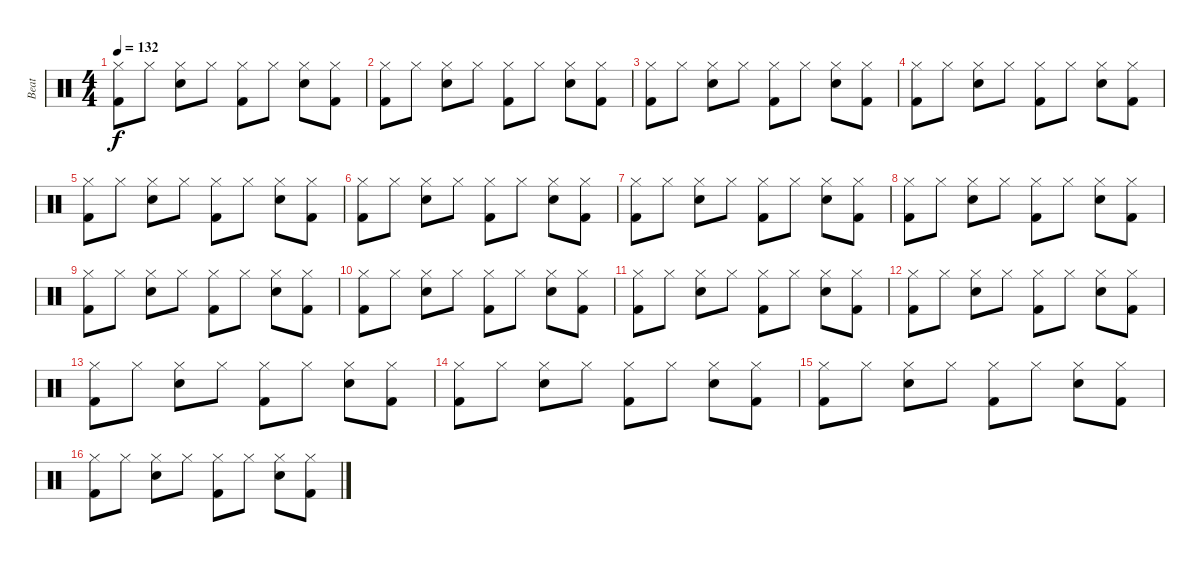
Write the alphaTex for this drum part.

\track ("Beat" "Beat") {instrument percussion}
\staff {score}
\articulation defaults
\ts (4 4)
\tempo 132
\clef neutral
\ks c
("Kick (hit) 2" "Hi-Hat (closed)").8{dy f} "Hi-Hat (closed)".8 ("Electric Snare (hit)" "Hi-Hat (closed)").8 "Hi-Hat (closed)".8 ("Kick (hit) 2" "Hi-Hat (closed)").8 "Hi-Hat (closed)".8 ("Electric Snare (hit)" "Hi-Hat (closed)").8 ("Kick (hit) 2" "Hi-Hat (closed)").8 |
("Kick (hit) 2" "Hi-Hat (closed)").8 "Hi-Hat (closed)".8 ("Electric Snare (hit)" "Hi-Hat (closed)").8 "Hi-Hat (closed)".8 ("Kick (hit) 2" "Hi-Hat (closed)").8 "Hi-Hat (closed)".8 ("Electric Snare (hit)" "Hi-Hat (closed)").8 ("Kick (hit) 2" "Hi-Hat (closed)").8 |
("Kick (hit) 2" "Hi-Hat (closed)").8 "Hi-Hat (closed)".8 ("Electric Snare (hit)" "Hi-Hat (closed)").8 "Hi-Hat (closed)".8 ("Kick (hit) 2" "Hi-Hat (closed)").8 "Hi-Hat (closed)".8 ("Electric Snare (hit)" "Hi-Hat (closed)").8 ("Kick (hit) 2" "Hi-Hat (closed)").8 |
("Kick (hit) 2" "Hi-Hat (closed)").8 "Hi-Hat (closed)".8 ("Electric Snare (hit)" "Hi-Hat (closed)").8 "Hi-Hat (closed)".8 ("Kick (hit) 2" "Hi-Hat (closed)").8 "Hi-Hat (closed)".8 ("Electric Snare (hit)" "Hi-Hat (closed)").8 ("Kick (hit) 2" "Hi-Hat (closed)").8 |
("Kick (hit) 2" "Hi-Hat (closed)").8 "Hi-Hat (closed)".8 ("Electric Snare (hit)" "Hi-Hat (closed)").8 "Hi-Hat (closed)".8 ("Kick (hit) 2" "Hi-Hat (closed)").8 "Hi-Hat (closed)".8 ("Electric Snare (hit)" "Hi-Hat (closed)").8 ("Kick (hit) 2" "Hi-Hat (closed)").8 |
("Kick (hit) 2" "Hi-Hat (closed)").8 "Hi-Hat (closed)".8 ("Electric Snare (hit)" "Hi-Hat (closed)").8 "Hi-Hat (closed)".8 ("Kick (hit) 2" "Hi-Hat (closed)").8 "Hi-Hat (closed)".8 ("Electric Snare (hit)" "Hi-Hat (closed)").8 ("Kick (hit) 2" "Hi-Hat (closed)").8 |
("Kick (hit) 2" "Hi-Hat (closed)").8 "Hi-Hat (closed)".8 ("Electric Snare (hit)" "Hi-Hat (closed)").8 "Hi-Hat (closed)".8 ("Kick (hit) 2" "Hi-Hat (closed)").8 "Hi-Hat (closed)".8 ("Electric Snare (hit)" "Hi-Hat (closed)").8 ("Kick (hit) 2" "Hi-Hat (closed)").8 |
("Kick (hit) 2" "Hi-Hat (closed)").8 "Hi-Hat (closed)".8 ("Electric Snare (hit)" "Hi-Hat (closed)").8 "Hi-Hat (closed)".8 ("Kick (hit) 2" "Hi-Hat (closed)").8 "Hi-Hat (closed)".8 ("Electric Snare (hit)" "Hi-Hat (closed)").8 ("Kick (hit) 2" "Hi-Hat (closed)").8 |
("Kick (hit) 2" "Hi-Hat (closed)").8 "Hi-Hat (closed)".8 ("Electric Snare (hit)" "Hi-Hat (closed)").8 "Hi-Hat (closed)".8 ("Kick (hit) 2" "Hi-Hat (closed)").8 "Hi-Hat (closed)".8 ("Electric Snare (hit)" "Hi-Hat (closed)").8 ("Kick (hit) 2" "Hi-Hat (closed)").8 |
("Kick (hit) 2" "Hi-Hat (closed)").8 "Hi-Hat (closed)".8 ("Electric Snare (hit)" "Hi-Hat (closed)").8 "Hi-Hat (closed)".8 ("Kick (hit) 2" "Hi-Hat (closed)").8 "Hi-Hat (closed)".8 ("Electric Snare (hit)" "Hi-Hat (closed)").8 ("Kick (hit) 2" "Hi-Hat (closed)").8 |
("Kick (hit) 2" "Hi-Hat (closed)").8 "Hi-Hat (closed)".8 ("Electric Snare (hit)" "Hi-Hat (closed)").8 "Hi-Hat (closed)".8 ("Kick (hit) 2" "Hi-Hat (closed)").8 "Hi-Hat (closed)".8 ("Electric Snare (hit)" "Hi-Hat (closed)").8 ("Kick (hit) 2" "Hi-Hat (closed)").8 |
("Kick (hit) 2" "Hi-Hat (closed)").8 "Hi-Hat (closed)".8 ("Electric Snare (hit)" "Hi-Hat (closed)").8 "Hi-Hat (closed)".8 ("Kick (hit) 2" "Hi-Hat (closed)").8 "Hi-Hat (closed)".8 ("Electric Snare (hit)" "Hi-Hat (closed)").8 ("Kick (hit) 2" "Hi-Hat (closed)").8 |
("Kick (hit) 2" "Hi-Hat (closed)").8 "Hi-Hat (closed)".8 ("Electric Snare (hit)" "Hi-Hat (closed)").8 "Hi-Hat (closed)".8 ("Kick (hit) 2" "Hi-Hat (closed)").8 "Hi-Hat (closed)".8 ("Electric Snare (hit)" "Hi-Hat (closed)").8 ("Kick (hit) 2" "Hi-Hat (closed)").8 |
("Kick (hit) 2" "Hi-Hat (closed)").8 "Hi-Hat (closed)".8 ("Electric Snare (hit)" "Hi-Hat (closed)").8 "Hi-Hat (closed)".8 ("Kick (hit) 2" "Hi-Hat (closed)").8 "Hi-Hat (closed)".8 ("Electric Snare (hit)" "Hi-Hat (closed)").8 ("Kick (hit) 2" "Hi-Hat (closed)").8 |
("Kick (hit) 2" "Hi-Hat (closed)").8 "Hi-Hat (closed)".8 ("Electric Snare (hit)" "Hi-Hat (closed)").8 "Hi-Hat (closed)".8 ("Kick (hit) 2" "Hi-Hat (closed)").8 "Hi-Hat (closed)".8 ("Electric Snare (hit)" "Hi-Hat (closed)").8 ("Kick (hit) 2" "Hi-Hat (closed)").8 |
("Kick (hit) 2" "Hi-Hat (closed)").8 "Hi-Hat (closed)".8 ("Electric Snare (hit)" "Hi-Hat (closed)").8 "Hi-Hat (closed)".8 ("Kick (hit) 2" "Hi-Hat (closed)").8 "Hi-Hat (closed)".8 ("Electric Snare (hit)" "Hi-Hat (closed)").8 ("Kick (hit) 2" "Hi-Hat (closed)").8
